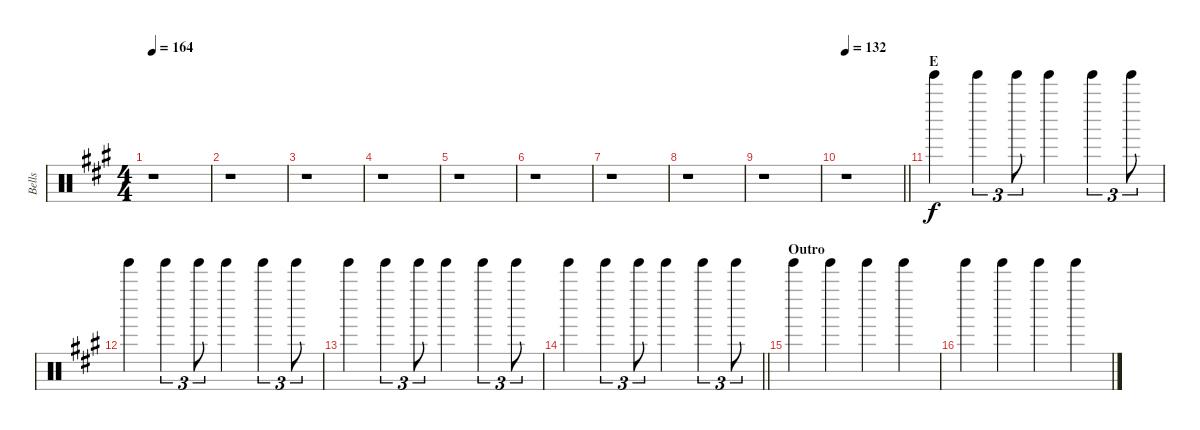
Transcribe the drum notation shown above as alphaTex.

\track ("Bells" "Bells") {instrument percussion}
\staff {score}
\articulation defaults
\ts (4 4)
\tempo 164
\clef neutral
\ks a
r.1{dy f} |
r.1 |
r.1 |
r.1 |
r.1 |
r.1 |
r.1 |
r.1 |
r.1 |
\tempo 132
\barLineRight lightlight
r.1 |
\section ("" "E")
"Tinkle Bell (hit)".4 "Tinkle Bell (hit)".4{tu (3 2)} "Tinkle Bell (hit)".8{tu (3 2)} "Tinkle Bell (hit)".4 "Tinkle Bell (hit)".4{tu (3 2)} "Tinkle Bell (hit)".8{tu (3 2)} |
"Tinkle Bell (hit)".4 "Tinkle Bell (hit)".4{tu (3 2)} "Tinkle Bell (hit)".8{tu (3 2)} "Tinkle Bell (hit)".4 "Tinkle Bell (hit)".4{tu (3 2)} "Tinkle Bell (hit)".8{tu (3 2)} |
"Tinkle Bell (hit)".4 "Tinkle Bell (hit)".4{tu (3 2)} "Tinkle Bell (hit)".8{tu (3 2)} "Tinkle Bell (hit)".4 "Tinkle Bell (hit)".4{tu (3 2)} "Tinkle Bell (hit)".8{tu (3 2)} |
\barLineRight lightlight "Tinkle Bell (hit)".4 "Tinkle Bell (hit)".4{tu (3 2)} "Tinkle Bell (hit)".8{tu (3 2)} "Tinkle Bell (hit)".4 "Tinkle Bell (hit)".4{tu (3 2)} "Tinkle Bell (hit)".8{tu (3 2)}
|
\section ("" "Outro")
"Tinkle Bell (hit)".4 "Tinkle Bell (hit)".4 "Tinkle Bell (hit)".4 "Tinkle Bell (hit)".4 |
"Tinkle Bell (hit)".4 "Tinkle Bell (hit)".4 "Tinkle Bell (hit)".4 "Tinkle Bell (hit)".4
